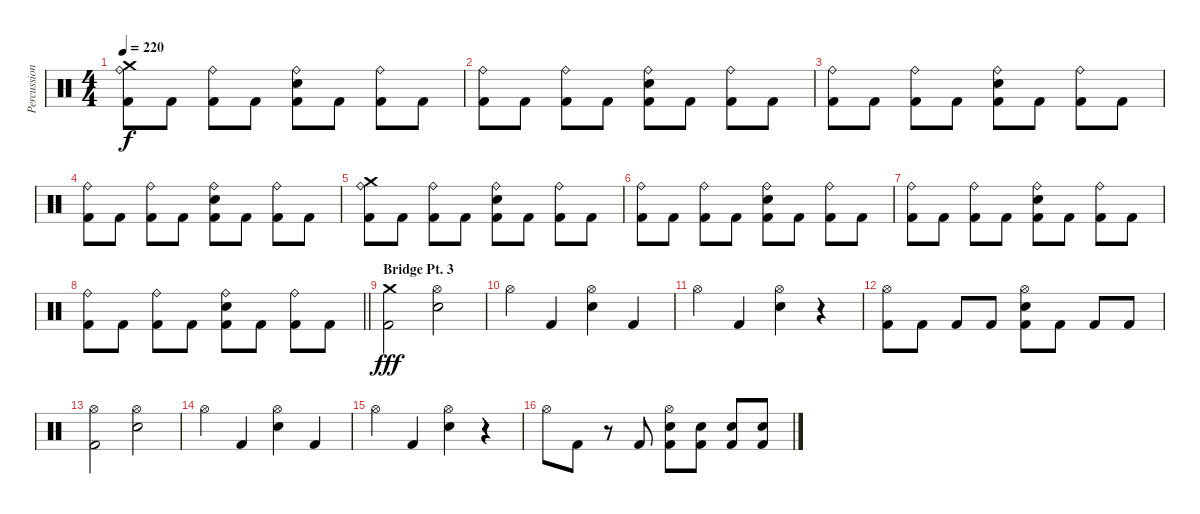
\track ("Percussion" "Percussion") {instrument percussion}
\staff {score}
\articulation defaults
\ts (4 4)
\tempo 220
\clef neutral
\ks c
("Crash medium (hit)" "Ride (bell)" "Kick (hit) 2").8{dy f} "Kick (hit) 2".8 ("Ride (bell)" "Kick (hit) 2").8 "Kick (hit) 2".8 ("Ride (bell)" "Electric Snare (hit)" "Kick (hit) 2").8 "Kick (hit) 2".8 ("Ride (bell)" "Kick (hit) 2").8 "Kick (hit) 2".8 |
("Ride (bell)" "Kick (hit) 2").8 "Kick (hit) 2".8 ("Ride (bell)" "Kick (hit) 2").8 "Kick (hit) 2".8 ("Ride (bell)" "Electric Snare (hit)" "Kick (hit) 2").8 "Kick (hit) 2".8 ("Ride (bell)" "Kick (hit) 2").8 "Kick (hit) 2".8 |
("Ride (bell)" "Kick (hit) 2").8 "Kick (hit) 2".8 ("Ride (bell)" "Kick (hit) 2").8 "Kick (hit) 2".8 ("Ride (bell)" "Electric Snare (hit)" "Kick (hit) 2").8 "Kick (hit) 2".8 ("Ride (bell)" "Kick (hit) 2").8 "Kick (hit) 2".8 |
("Ride (bell)" "Kick (hit) 2").8 "Kick (hit) 2".8 ("Ride (bell)" "Kick (hit) 2").8 "Kick (hit) 2".8 ("Ride (bell)" "Electric Snare (hit)" "Kick (hit) 2").8 "Kick (hit) 2".8 ("Ride (bell)" "Kick (hit) 2").8 "Kick (hit) 2".8 |
("Crash medium (hit)" "Ride (bell)" "Kick (hit) 2").8 "Kick (hit) 2".8 ("Ride (bell)" "Kick (hit) 2").8 "Kick (hit) 2".8 ("Ride (bell)" "Electric Snare (hit)" "Kick (hit) 2").8 "Kick (hit) 2".8 ("Ride (bell)" "Kick (hit) 2").8 "Kick (hit) 2".8 |
("Ride (bell)" "Kick (hit) 2").8 "Kick (hit) 2".8 ("Ride (bell)" "Kick (hit) 2").8 "Kick (hit) 2".8 ("Ride (bell)" "Electric Snare (hit)" "Kick (hit) 2").8 "Kick (hit) 2".8 ("Ride (bell)" "Kick (hit) 2").8 "Kick (hit) 2".8 |
("Ride (bell)" "Kick (hit) 2").8 "Kick (hit) 2".8 ("Ride (bell)" "Kick (hit) 2").8 "Kick (hit) 2".8 ("Ride (bell)" "Electric Snare (hit)" "Kick (hit) 2").8 "Kick (hit) 2".8 ("Ride (bell)" "Kick (hit) 2").8 "Kick (hit) 2".8 |
\barLineRight lightlight
("Ride (bell)" "Kick (hit) 2").8 "Kick (hit) 2".8 ("Ride (bell)" "Kick (hit) 2").8 "Kick (hit) 2".8 ("Ride (bell)" "Electric Snare (hit)" "Kick (hit) 2").8 "Kick (hit) 2".8 ("Ride (bell)" "Kick (hit) 2").8 "Kick (hit) 2".8 |
\section ("" "Bridge Pt. 3")
("Crash medium (hit)" "Kick (hit) 2").2{dy fff} ("Hi-Hat (open)" "Electric Snare (hit)").2 |
"Hi-Hat (open)".4 "Kick (hit) 2".4 ("Hi-Hat (open)" "Electric Snare (hit)").4 "Kick (hit) 2".4 |
"Hi-Hat (open)".4 "Kick (hit) 2".4 ("Hi-Hat (open)" "Electric Snare (hit)").4 r.4 |
("Hi-Hat (open)" "Kick (hit) 2").8 "Kick (hit) 2".8 "Kick (hit) 2".8 "Kick (hit) 2".8 ("Hi-Hat (open)" "Electric Snare (hit)" "Kick (hit) 2").8 "Kick (hit) 2".8 "Kick (hit) 2".8 "Kick (hit) 2".8 |
("Hi-Hat (open)" "Kick (hit) 2").2 ("Hi-Hat (open)" "Electric Snare (hit)").2 |
"Hi-Hat (open)".4 "Kick (hit) 2".4 ("Hi-Hat (open)" "Electric Snare (hit)").4 "Kick (hit) 2".4 |
"Hi-Hat (open)".4 "Kick (hit) 2".4 ("Hi-Hat (open)" "Electric Snare (hit)").4 r.4 |
"Hi-Hat (open)".8 "Kick (hit) 2".8 r.8 "Kick (hit) 2".8 ("Hi-Hat (open)" "Electric Snare (hit)" "Kick (hit) 2").8 ("Electric Snare (hit)" "Kick (hit) 2").8 ("Electric Snare (hit)" "Kick (hit) 2").8 ("Electric Snare (hit)" "Kick (hit) 2").8
